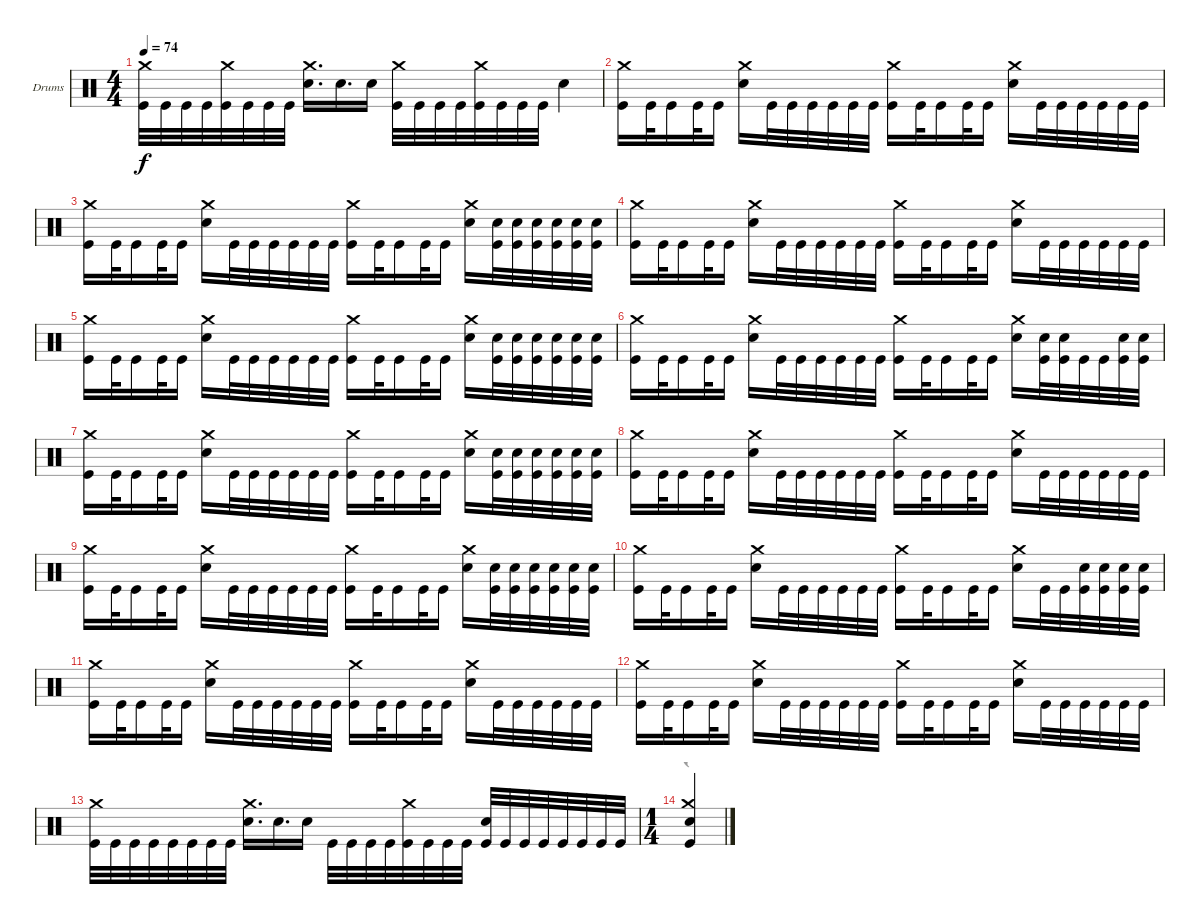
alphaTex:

\bracketExtendMode groupsimilarinstruments
\firstSystemTrackNameOrientation horizontal
\otherSystemsTrackNameOrientation horizontal
\track ("Drumkit" "Drums") {instrument percussion}
\staff {score}
\articulation defaults
\voice
\ts (4 4)
\tempo 74
\clef neutral
\ks c
("Crash medium (hit)" "Kick (hit)").32{dy f} "Kick (hit)".32 "Kick (hit)".32 "Kick (hit)".32 ("Crash medium (hit)" "Kick (hit)").32 "Kick (hit)".32 "Kick (hit)".32 "Kick (hit)".32 ("Crash medium (hit)" "Snare (hit) 2").16{d} "Snare (hit) 2".16{d} "Snare (hit) 2".16 ("Crash medium (hit)" "Kick (hit)").32 "Kick (hit)".32 "Kick (hit)".32 "Kick (hit)".32 ("Crash medium (hit)" "Kick (hit)").32 "Kick (hit)".32 "Kick (hit)".32 "Kick (hit)".32 "Snare (hit) 2".4 |
("Crash medium (hit)" "Kick (hit)").16 "Kick (hit)".32 "Kick (hit)".16 "Kick (hit)".32 "Kick (hit)".16 ("Crash medium (hit)" "Snare (hit) 2").16 "Kick (hit)".32 "Kick (hit)".32 "Kick (hit)".32 "Kick (hit)".32 "Kick (hit)".32 "Kick (hit)".32 ("Crash medium (hit)" "Kick (hit)").16 "Kick (hit)".32 "Kick (hit)".16 "Kick (hit)".32 "Kick (hit)".16 ("Crash medium (hit)" "Snare (hit) 2").16 "Kick (hit)".32 "Kick (hit)".32 "Kick (hit)".32 "Kick (hit)".32 "Kick (hit)".32 "Kick (hit)".32 |
("Crash medium (hit)" "Kick (hit)").16 "Kick (hit)".32 "Kick (hit)".16 "Kick (hit)".32 "Kick (hit)".16 ("Crash medium (hit)" "Snare (hit) 2").16 "Kick (hit)".32 "Kick (hit)".32 "Kick (hit)".32 "Kick (hit)".32 "Kick (hit)".32 "Kick (hit)".32 ("Crash medium (hit)" "Kick (hit)").16 "Kick (hit)".32 "Kick (hit)".16 "Kick (hit)".32 "Kick (hit)".16 ("Crash medium (hit)" "Snare (hit) 2").16 ("Snare (hit) 2" "Kick (hit)").32 ("Snare (hit) 2" "Kick (hit)").32 ("Snare (hit) 2" "Kick (hit)").32 ("Snare (hit) 2" "Kick (hit)").32 ("Snare (hit) 2" "Kick (hit)").32 ("Snare (hit) 2" "Kick (hit)").32 |
("Crash medium (hit)" "Kick (hit)").16 "Kick (hit)".32 "Kick (hit)".16 "Kick (hit)".32 "Kick (hit)".16 ("Crash medium (hit)" "Snare (hit) 2").16 "Kick (hit)".32 "Kick (hit)".32 "Kick (hit)".32 "Kick (hit)".32 "Kick (hit)".32 "Kick (hit)".32 ("Crash medium (hit)" "Kick (hit)").16 "Kick (hit)".32 "Kick (hit)".16 "Kick (hit)".32 "Kick (hit)".16 ("Crash medium (hit)" "Snare (hit) 2").16 "Kick (hit)".32 "Kick (hit)".32 "Kick (hit)".32 "Kick (hit)".32 "Kick (hit)".32 "Kick (hit)".32 |
("Crash medium (hit)" "Kick (hit)").16 "Kick (hit)".32 "Kick (hit)".16 "Kick (hit)".32 "Kick (hit)".16 ("Crash medium (hit)" "Snare (hit) 2").16 "Kick (hit)".32 "Kick (hit)".32 "Kick (hit)".32 "Kick (hit)".32 "Kick (hit)".32 "Kick (hit)".32 ("Crash medium (hit)" "Kick (hit)").16 "Kick (hit)".32 "Kick (hit)".16 "Kick (hit)".32 "Kick (hit)".16 ("Crash medium (hit)" "Snare (hit) 2").16 ("Snare (hit) 2" "Kick (hit)").32 ("Snare (hit) 2" "Kick (hit)").32 ("Snare (hit) 2" "Kick (hit)").32 ("Snare (hit) 2" "Kick (hit)").32 ("Snare (hit) 2" "Kick (hit)").32 ("Snare (hit) 2" "Kick (hit)").32 |
("Crash medium (hit)" "Kick (hit)").16 "Kick (hit)".32 "Kick (hit)".16 "Kick (hit)".32 "Kick (hit)".16 ("Crash medium (hit)" "Snare (hit) 2").16 "Kick (hit)".32 "Kick (hit)".32 "Kick (hit)".32 "Kick (hit)".32 "Kick (hit)".32 "Kick (hit)".32 ("Crash medium (hit)" "Kick (hit)").16 "Kick (hit)".32 "Kick (hit)".16 "Kick (hit)".32 "Kick (hit)".16 ("Crash medium (hit)" "Snare (hit) 2").16 ("Snare (hit) 2" "Kick (hit)").32 ("Snare (hit) 2" "Kick (hit)").32 "Kick (hit)".32 "Kick (hit)".32 ("Snare (hit) 2" "Kick (hit)").32 ("Snare (hit) 2" "Kick (hit)").32 |
("Crash medium (hit)" "Kick (hit)").16 "Kick (hit)".32 "Kick (hit)".16 "Kick (hit)".32 "Kick (hit)".16 ("Crash medium (hit)" "Snare (hit) 2").16 "Kick (hit)".32 "Kick (hit)".32 "Kick (hit)".32 "Kick (hit)".32 "Kick (hit)".32 "Kick (hit)".32 ("Crash medium (hit)" "Kick (hit)").16 "Kick (hit)".32 "Kick (hit)".16 "Kick (hit)".32 "Kick (hit)".16 ("Crash medium (hit)" "Snare (hit) 2").16 ("Snare (hit) 2" "Kick (hit)").32 ("Snare (hit) 2" "Kick (hit)").32 ("Snare (hit) 2" "Kick (hit)").32 ("Snare (hit) 2" "Kick (hit)").32 ("Snare (hit) 2" "Kick (hit)").32 ("Snare (hit) 2" "Kick (hit)").32 |
("Crash medium (hit)" "Kick (hit)").16 "Kick (hit)".32 "Kick (hit)".16 "Kick (hit)".32 "Kick (hit)".16 ("Crash medium (hit)" "Snare (hit) 2").16 "Kick (hit)".32 "Kick (hit)".32 "Kick (hit)".32 "Kick (hit)".32 "Kick (hit)".32 "Kick (hit)".32 ("Crash medium (hit)" "Kick (hit)").16 "Kick (hit)".32 "Kick (hit)".16 "Kick (hit)".32 "Kick (hit)".16 ("Crash medium (hit)" "Snare (hit) 2").16 "Kick (hit)".32 "Kick (hit)".32 "Kick (hit)".32 "Kick (hit)".32 "Kick (hit)".32 "Kick (hit)".32 |
("Crash medium (hit)" "Kick (hit)").16 "Kick (hit)".32 "Kick (hit)".16 "Kick (hit)".32 "Kick (hit)".16 ("Crash medium (hit)" "Snare (hit) 2").16 "Kick (hit)".32 "Kick (hit)".32 "Kick (hit)".32 "Kick (hit)".32 "Kick (hit)".32 "Kick (hit)".32 ("Crash medium (hit)" "Kick (hit)").16 "Kick (hit)".32 "Kick (hit)".16 "Kick (hit)".32 "Kick (hit)".16 ("Crash medium (hit)" "Snare (hit) 2").16 ("Snare (hit) 2" "Kick (hit)").32 ("Snare (hit) 2" "Kick (hit)").32 ("Snare (hit) 2" "Kick (hit)").32 ("Snare (hit) 2" "Kick (hit)").32 ("Snare (hit) 2" "Kick (hit)").32 ("Snare (hit) 2" "Kick (hit)").32 |
("Crash medium (hit)" "Kick (hit)").16 "Kick (hit)".32 "Kick (hit)".16 "Kick (hit)".32 "Kick (hit)".16 ("Crash medium (hit)" "Snare (hit) 2").16 "Kick (hit)".32 "Kick (hit)".32 "Kick (hit)".32 "Kick (hit)".32 "Kick (hit)".32 "Kick (hit)".32 ("Crash medium (hit)" "Kick (hit)").16 "Kick (hit)".32 "Kick (hit)".16 "Kick (hit)".32 "Kick (hit)".16 ("Crash medium (hit)" "Snare (hit) 2").16 "Kick (hit)".32 "Kick (hit)".32 ("Snare (hit) 2" "Kick (hit)").32 ("Snare (hit) 2" "Kick (hit)").32 ("Snare (hit) 2" "Kick (hit)").32 ("Snare (hit) 2" "Kick (hit)").32 |
("Crash medium (hit)" "Kick (hit)").16 "Kick (hit)".32 "Kick (hit)".16 "Kick (hit)".32 "Kick (hit)".16 ("Crash medium (hit)" "Snare (hit) 2").16 "Kick (hit)".32 "Kick (hit)".32 "Kick (hit)".32 "Kick (hit)".32 "Kick (hit)".32 "Kick (hit)".32 ("Crash medium (hit)" "Kick (hit)").16 "Kick (hit)".32 "Kick (hit)".16 "Kick (hit)".32 "Kick (hit)".16 ("Crash medium (hit)" "Snare (hit) 2").16 "Kick (hit)".32 "Kick (hit)".32 "Kick (hit)".32 "Kick (hit)".32 "Kick (hit)".32 "Kick (hit)".32 |
("Crash medium (hit)" "Kick (hit)").16 "Kick (hit)".32 "Kick (hit)".16 "Kick (hit)".32 "Kick (hit)".16 ("Crash medium (hit)" "Snare (hit) 2").16 "Kick (hit)".32 "Kick (hit)".32 "Kick (hit)".32 "Kick (hit)".32 "Kick (hit)".32 "Kick (hit)".32 ("Crash medium (hit)" "Kick (hit)").16 "Kick (hit)".32 "Kick (hit)".16 "Kick (hit)".32 "Kick (hit)".16 ("Crash medium (hit)" "Snare (hit) 2").16 "Kick (hit)".32 "Kick (hit)".32 "Kick (hit)".32 "Kick (hit)".32 "Kick (hit)".32 "Kick (hit)".32 |
("Crash medium (hit)" "Kick (hit)").32 "Kick (hit)".32 "Kick (hit)".32 "Kick (hit)".32 "Kick (hit)".32 "Kick (hit)".32 "Kick (hit)".32 "Kick (hit)".32 ("Crash medium (hit)" "Snare (hit) 2").16{d} "Snare (hit) 2".16{d} "Snare (hit) 2".16 "Kick (hit)".32 "Kick (hit)".32 "Kick (hit)".32 "Kick (hit)".32 ("Crash medium (hit)" "Kick (hit)").32 "Kick (hit)".32 "Kick (hit)".32 "Kick (hit)".32 ("Snare (hit) 2" "Kick (hit)").32 "Kick (hit)".32 "Kick (hit)".32 "Kick (hit)".32 "Kick (hit)".32 "Kick (hit)".32 "Kick (hit)".32 "Kick (hit)".32 |
\ts (1 4)
\beaming (8 2)
("Crash medium (hit)" "Snare (hit) 2" "Kick (hit)").4
\voice
\clef neutral
\ottava regular
\simile none
\ks c
|
|
|
|
|
|
|
|
|
|
|
|
|
r.4{dy mf}
